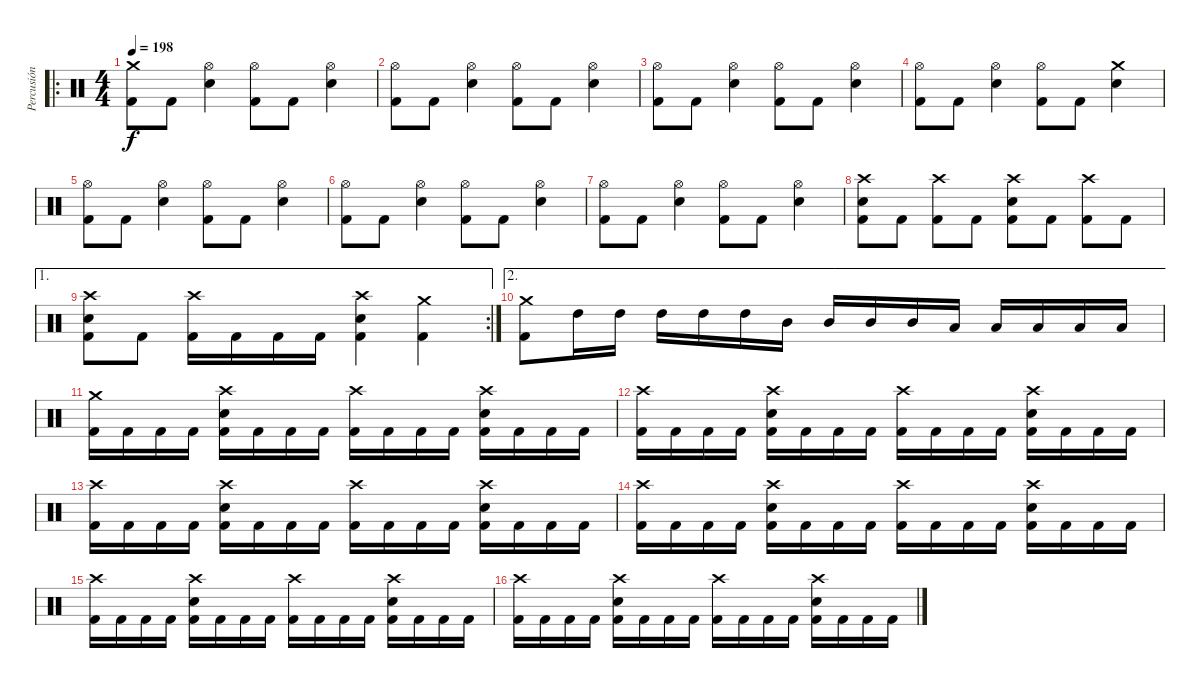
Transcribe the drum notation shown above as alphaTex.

\track ("Percusión" "Percusión") {instrument percussion}
\staff {score}
\articulation defaults
\ro
\ts (4 4)
\tempo 198
\clef neutral
\ks c
("Crash medium (hit)" "Kick (hit) 2").8{dy f} "Kick (hit) 2".8 ("Hi-Hat (open)" "Electric Snare (hit)").4 ("Hi-Hat (open)" "Kick (hit) 2").8 "Kick (hit) 2".8 ("Hi-Hat (open)" "Electric Snare (hit)").4 |
("Hi-Hat (open)" "Kick (hit) 2").8 "Kick (hit) 2".8 ("Hi-Hat (open)" "Electric Snare (hit)").4 ("Hi-Hat (open)" "Kick (hit) 2").8 "Kick (hit) 2".8 ("Hi-Hat (open)" "Electric Snare (hit)").4 |
("Hi-Hat (open)" "Kick (hit) 2").8 "Kick (hit) 2".8 ("Hi-Hat (open)" "Electric Snare (hit)").4 ("Hi-Hat (open)" "Kick (hit) 2").8 "Kick (hit) 2".8 ("Hi-Hat (open)" "Electric Snare (hit)").4 |
("Hi-Hat (open)" "Kick (hit) 2").8 "Kick (hit) 2".8 ("Hi-Hat (open)" "Electric Snare (hit)").4 ("Hi-Hat (open)" "Kick (hit) 2").8 "Kick (hit) 2".8 ("Crash medium (hit)" "Electric Snare (hit)").4 |
("Hi-Hat (open)" "Kick (hit) 2").8 "Kick (hit) 2".8 ("Hi-Hat (open)" "Electric Snare (hit)").4 ("Hi-Hat (open)" "Kick (hit) 2").8 "Kick (hit) 2".8 ("Hi-Hat (open)" "Electric Snare (hit)").4 |
("Hi-Hat (open)" "Kick (hit) 2").8 "Kick (hit) 2".8 ("Hi-Hat (open)" "Electric Snare (hit)").4 ("Hi-Hat (open)" "Kick (hit) 2").8 "Kick (hit) 2".8 ("Hi-Hat (open)" "Electric Snare (hit)").4 |
("Hi-Hat (open)" "Kick (hit) 2").8 "Kick (hit) 2".8 ("Hi-Hat (open)" "Electric Snare (hit)").4 ("Hi-Hat (open)" "Kick (hit) 2").8 "Kick (hit) 2".8 ("Hi-Hat (open)" "Electric Snare (hit)").4 |
("Crash high (hit)" "Electric Snare (hit)" "Kick (hit) 2").8 "Kick (hit) 2".8 ("Crash high (hit)" "Kick (hit) 2").8 "Kick (hit) 2".8 ("Crash high (hit)" "Electric Snare (hit)" "Kick (hit) 2").8 "Kick (hit) 2".8 ("Crash high (hit)" "Kick (hit) 2").8 "Kick (hit) 2".8 |
\ae 1
\rc 2
("Crash high (hit)" "Electric Snare (hit)" "Kick (hit) 2").8 "Kick (hit) 2".8 ("Crash high (hit)" "Kick (hit) 2").16 "Kick (hit) 2".16 "Kick (hit) 2".16 "Kick (hit) 2".16 ("Crash high (hit)" "Electric Snare (hit)" "Kick (hit) 2").4 ("Crash medium (hit)" "Kick (hit) 2").4 |
\ae 2
("Crash medium (hit)" "Kick (hit) 2").8 "High Tom (hit)".16 "High Tom (hit)".16 "High Tom (hit)".16 "High Tom (hit)".16 "High Tom (hit)".16 "Mid Tom (hit)".16 "Mid Tom (hit)".16 "Mid Tom (hit)".16 "Mid Tom (hit)".16 "Low Tom (hit)".16 "Low Tom (hit)".16 "Low Tom (hit)".16 "Low Tom (hit)".16 "Low Tom (hit)".16 |
("Crash medium (hit)" "Kick (hit) 2").16 "Kick (hit) 2".16 "Kick (hit) 2".16 "Kick (hit) 2".16 ("Crash high (hit)" "Electric Snare (hit)" "Kick (hit) 2").16 "Kick (hit) 2".16 "Kick (hit) 2".16 "Kick (hit) 2".16 ("Crash high (hit)" "Kick (hit) 2").16 "Kick (hit) 2".16 "Kick (hit) 2".16 "Kick (hit) 2".16 ("Crash high (hit)" "Electric Snare (hit)" "Kick (hit) 2").16 "Kick (hit) 2".16 "Kick (hit) 2".16 "Kick (hit) 2".16 |
("Crash high (hit)" "Kick (hit) 2").16 "Kick (hit) 2".16 "Kick (hit) 2".16 "Kick (hit) 2".16 ("Crash high (hit)" "Electric Snare (hit)" "Kick (hit) 2").16 "Kick (hit) 2".16 "Kick (hit) 2".16 "Kick (hit) 2".16 ("Crash high (hit)" "Kick (hit) 2").16 "Kick (hit) 2".16 "Kick (hit) 2".16 "Kick (hit) 2".16 ("Crash high (hit)" "Electric Snare (hit)" "Kick (hit) 2").16 "Kick (hit) 2".16 "Kick (hit) 2".16 "Kick (hit) 2".16 |
("Crash high (hit)" "Kick (hit) 2").16 "Kick (hit) 2".16 "Kick (hit) 2".16 "Kick (hit) 2".16 ("Crash high (hit)" "Electric Snare (hit)" "Kick (hit) 2").16 "Kick (hit) 2".16 "Kick (hit) 2".16 "Kick (hit) 2".16 ("Crash high (hit)" "Kick (hit) 2").16 "Kick (hit) 2".16 "Kick (hit) 2".16 "Kick (hit) 2".16 ("Crash high (hit)" "Electric Snare (hit)" "Kick (hit) 2").16 "Kick (hit) 2".16 "Kick (hit) 2".16 "Kick (hit) 2".16 |
("Crash high (hit)" "Kick (hit) 2").16 "Kick (hit) 2".16 "Kick (hit) 2".16 "Kick (hit) 2".16 ("Crash high (hit)" "Electric Snare (hit)" "Kick (hit) 2").16 "Kick (hit) 2".16 "Kick (hit) 2".16 "Kick (hit) 2".16 ("Crash high (hit)" "Kick (hit) 2").16 "Kick (hit) 2".16 "Kick (hit) 2".16 "Kick (hit) 2".16 ("Crash high (hit)" "Electric Snare (hit)" "Kick (hit) 2").16 "Kick (hit) 2".16 "Kick (hit) 2".16 "Kick (hit) 2".16 |
("Crash high (hit)" "Kick (hit) 2").16 "Kick (hit) 2".16 "Kick (hit) 2".16 "Kick (hit) 2".16 ("Crash high (hit)" "Electric Snare (hit)" "Kick (hit) 2").16 "Kick (hit) 2".16 "Kick (hit) 2".16 "Kick (hit) 2".16 ("Crash high (hit)" "Kick (hit) 2").16 "Kick (hit) 2".16 "Kick (hit) 2".16 "Kick (hit) 2".16 ("Crash high (hit)" "Electric Snare (hit)" "Kick (hit) 2").16 "Kick (hit) 2".16 "Kick (hit) 2".16 "Kick (hit) 2".16 |
("Crash high (hit)" "Kick (hit) 2").16 "Kick (hit) 2".16 "Kick (hit) 2".16 "Kick (hit) 2".16 ("Crash high (hit)" "Electric Snare (hit)" "Kick (hit) 2").16 "Kick (hit) 2".16 "Kick (hit) 2".16 "Kick (hit) 2".16 ("Crash high (hit)" "Kick (hit) 2").16 "Kick (hit) 2".16 "Kick (hit) 2".16 "Kick (hit) 2".16 ("Crash high (hit)" "Electric Snare (hit)" "Kick (hit) 2").16 "Kick (hit) 2".16 "Kick (hit) 2".16 "Kick (hit) 2".16
